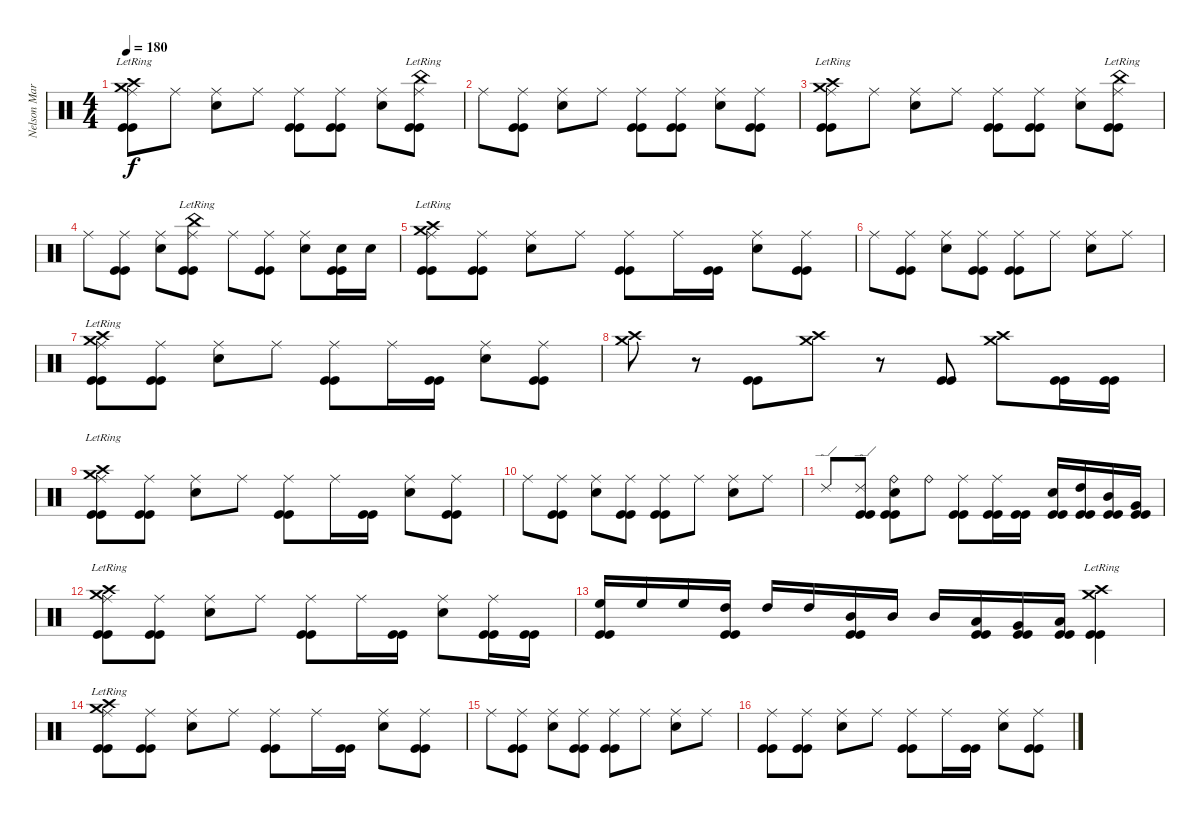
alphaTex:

\track ("Nelson Maria" "Nelson Mar") {instrument percussion}
\staff {score}
\articulation defaults
\ts (4 4)
\tempo 180
\clef neutral
\ks c
("Crash high (hit)"{lr} "Crash medium (hit)"{lr} "Ride (middle)" "Kick (hit)" "Kick (hit)").8{dy f} "Ride (middle)".8 ("Snare (hit) 2" "Ride (middle)").8 "Ride (middle)".8 ("Ride (middle)" "Kick (hit)" "Kick (hit)").8 ("Ride (middle)" "Kick (hit)" "Kick (hit)").8 ("Snare (hit) 2" "Ride (middle)").8 ("China (hit)"{lr} "Ride (middle)" "Kick (hit)" "Kick (hit)").8 |
"Ride (middle)".8 ("Ride (middle)" "Kick (hit)" "Kick (hit)").8 ("Snare (hit) 2" "Ride (middle)").8 "Ride (middle)".8 ("Ride (middle)" "Kick (hit)" "Kick (hit)").8 ("Ride (middle)" "Kick (hit)" "Kick (hit)").8 ("Snare (hit) 2" "Ride (middle)").8 ("Ride (middle)" "Kick (hit)" "Kick (hit)").8 |
("Crash high (hit)"{lr} "Crash medium (hit)"{lr} "Ride (middle)" "Kick (hit)" "Kick (hit)").8 "Ride (middle)".8 ("Snare (hit) 2" "Ride (middle)").8 "Ride (middle)".8 ("Ride (middle)" "Kick (hit)" "Kick (hit)").8 ("Ride (middle)" "Kick (hit)" "Kick (hit)").8 ("Snare (hit) 2" "Ride (middle)").8 ("China (hit)"{lr} "Ride (middle)" "Kick (hit)" "Kick (hit)").8 |
"Ride (middle)".8 ("Ride (middle)" "Kick (hit)" "Kick (hit)").8 ("Snare (hit) 2" "Ride (middle)").8 ("China (hit)"{lr} "Ride (middle)" "Kick (hit)" "Kick (hit)").8 "Ride (middle)".8 ("Ride (middle)" "Kick (hit)" "Kick (hit)").8 ("Snare (hit) 2" "Ride (middle)").8 ("Snare (hit) 2" "Kick (hit)" "Kick (hit)").16 "Snare (hit) 2".16 |
("Crash high (hit)"{lr} "Crash medium (hit)"{lr} "Ride (middle)" "Kick (hit)" "Kick (hit)").8 ("Ride (middle)" "Kick (hit)" "Kick (hit)").8 ("Snare (hit) 2" "Ride (middle)").8 "Ride (middle)".8 ("Ride (middle)" "Kick (hit)" "Kick (hit)").8 "Ride (middle)".16 ("Kick (hit)" "Kick (hit)").16 ("Snare (hit) 2" "Ride (middle)").8 ("Ride (middle)" "Kick (hit)" "Kick (hit)").8 |
"Ride (middle)".8 ("Ride (middle)" "Kick (hit)" "Kick (hit)").8 ("Snare (hit) 2" "Ride (middle)").8 ("Ride (middle)" "Kick (hit)" "Kick (hit)").8 ("Ride (middle)" "Kick (hit)" "Kick (hit)").8 "Ride (middle)".8 ("Snare (hit) 2" "Ride (middle)").8 "Ride (middle)".8 |
("Crash high (hit)"{lr} "Crash medium (hit)"{lr} "Ride (middle)" "Kick (hit)" "Kick (hit)").8 ("Ride (middle)" "Kick (hit)" "Kick (hit)").8 ("Snare (hit) 2" "Ride (middle)").8 "Ride (middle)".8 ("Ride (middle)" "Kick (hit)" "Kick (hit)").8 "Ride (middle)".16 ("Kick (hit)" "Kick (hit)").16 ("Snare (hit) 2" "Ride (middle)").8 ("Ride (middle)" "Kick (hit)" "Kick (hit)").8 |
("Crash high (hit)" "Crash medium (hit)").8 r.8{volume 0} ("Kick (hit)" "Kick (hit)").8{volume 16} ("Crash high (hit)" "Crash medium (hit)").8 r.8{volume 0} ("Kick (hit)" "Kick (hit)").8{volume 16} ("Crash high (hit)" "Crash medium (hit)").8 ("Kick (hit)" "Kick (hit)").16 ("Kick (hit)" "Kick (hit)").16 |
("Crash high (hit)"{lr} "Crash medium (hit)"{lr} "Ride (middle)" "Kick (hit)" "Kick (hit)").8 ("Ride (middle)" "Kick (hit)" "Kick (hit)").8 ("Snare (hit) 2" "Ride (middle)").8 "Ride (middle)".8 ("Ride (middle)" "Kick (hit)" "Kick (hit)").8 "Ride (middle)".16 ("Kick (hit)" "Kick (hit)").16 ("Snare (hit) 2" "Ride (middle)").8 ("Ride (middle)" "Kick (hit)" "Kick (hit)").8 |
"Ride (middle)".8 ("Ride (middle)" "Kick (hit)" "Kick (hit)").8 ("Snare (hit) 2" "Ride (middle)").8 ("Ride (middle)" "Kick (hit)" "Kick (hit)").8 ("Ride (middle)" "Kick (hit)" "Kick (hit)").8 "Ride (middle)".8 ("Snare (hit) 2" "Ride (middle)").8 "Ride (middle)".8 |
"Ride (edge) 2".8 ("Ride (edge) 2" "Kick (hit)" "Kick (hit)").8 ("Snare (hit) 2" "Ride (bell)" "Kick (hit)" "Kick (hit)").8 "Ride (bell)".8 ("Ride (middle)" "Kick (hit)" "Kick (hit)").8 ("Ride (middle)" "Kick (hit)" "Kick (hit)").16 ("Kick (hit)" "Kick (hit)").16 ("Snare (hit) 2" "Kick (hit)" "Kick (hit)").16 ("High Tom (hit)" "Kick (hit)" "Kick (hit)").16 ("Mid Tom (hit)" "Kick (hit)" "Kick (hit)").16 ("Very Low Tom (hit)" "Kick (hit)" "Kick (hit)").16 |
("Crash high (hit)"{lr} "Crash medium (hit)"{lr} "Ride (middle)" "Kick (hit)" "Kick (hit)").8 ("Ride (middle)" "Kick (hit)" "Kick (hit)").8 ("Snare (hit) 2" "Ride (middle)").8 "Ride (middle)".8 ("Ride (middle)" "Kick (hit)" "Kick (hit)").8 "Ride (middle)".16 ("Kick (hit)" "Kick (hit)").16 ("Snare (hit) 2" "Ride (middle)").8 ("Ride (middle)" "Kick (hit)" "Kick (hit)").16 ("Kick (hit)" "Kick (hit)").16 |
("High Floor Tom (hit)" "Kick (hit)" "Kick (hit)").16 "High Floor Tom (hit)".16 "High Floor Tom (hit)".16 ("High Tom (hit)" "Kick (hit)" "Kick (hit)").16 "High Tom (hit)".16 "High Tom (hit)".16 ("Mid Tom (hit)" "Kick (hit)" "Kick (hit)").16 "Mid Tom (hit)".16 "Mid Tom (hit)".16 ("Low Tom (hit)" "Kick (hit)" "Kick (hit)").16 ("Very Low Tom (hit)" "Kick (hit)" "Kick (hit)").16 ("Low Floor Tom (hit)" "Kick (hit)" "Kick (hit)").16 ("Crash high (hit)"{lr} "Crash medium (hit)"{lr} "Kick (hit)" "Kick (hit)").4 |
("Crash high (hit)"{lr} "Crash medium (hit)"{lr} "Ride (middle)" "Kick (hit)" "Kick (hit)").8 ("Ride (middle)" "Kick (hit)" "Kick (hit)").8 ("Snare (hit) 2" "Ride (middle)").8 "Ride (middle)".8 ("Ride (middle)" "Kick (hit)" "Kick (hit)").8 "Ride (middle)".16 ("Kick (hit)" "Kick (hit)").16 ("Snare (hit) 2" "Ride (middle)").8 ("Ride (middle)" "Kick (hit)" "Kick (hit)").8 |
"Ride (middle)".8 ("Ride (middle)" "Kick (hit)" "Kick (hit)").8 ("Snare (hit) 2" "Ride (middle)").8 ("Ride (middle)" "Kick (hit)" "Kick (hit)").8 ("Ride (middle)" "Kick (hit)" "Kick (hit)").8 "Ride (middle)".8 ("Snare (hit) 2" "Ride (middle)").8 "Ride (middle)".8 |
("Ride (middle)" "Kick (hit)" "Kick (hit)").8 ("Ride (middle)" "Kick (hit)" "Kick (hit)").8 ("Snare (hit) 2" "Ride (middle)").8 "Ride (middle)".8 ("Ride (middle)" "Kick (hit)" "Kick (hit)").8 "Ride (middle)".16 ("Kick (hit)" "Kick (hit)").16 ("Snare (hit) 2" "Ride (middle)").8 ("Ride (middle)" "Kick (hit)" "Kick (hit)").8
